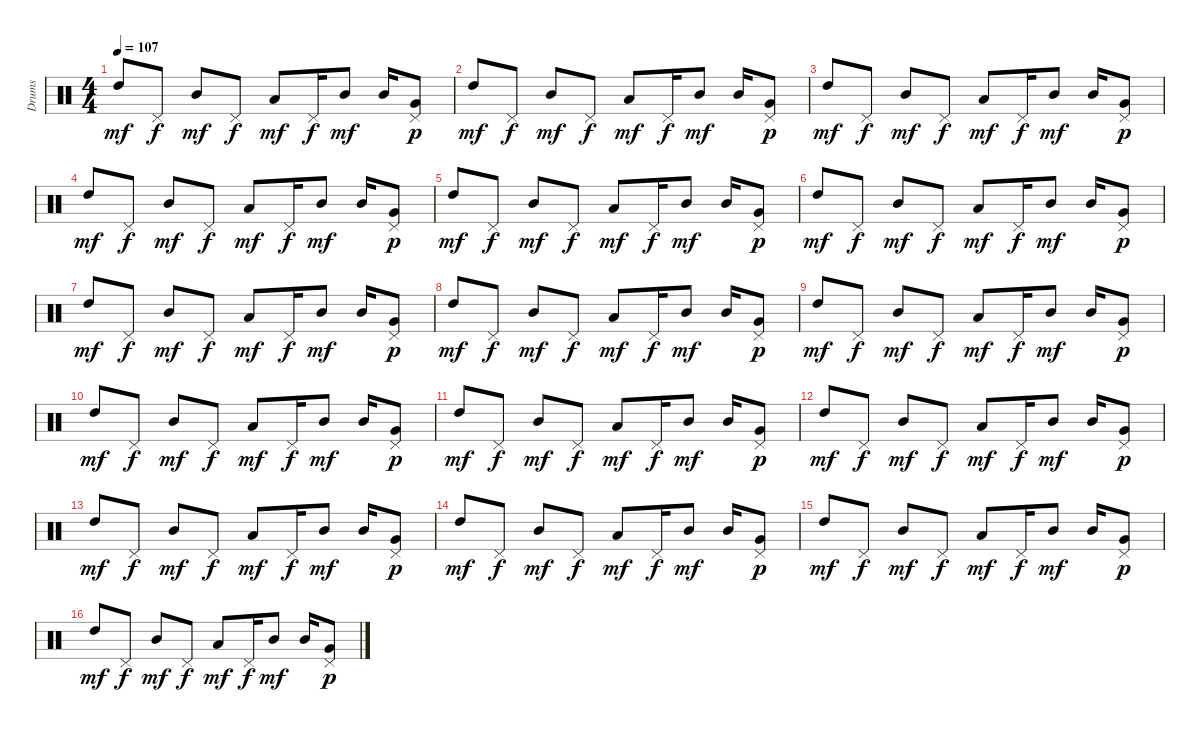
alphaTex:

\track ("Drums" "Drums") {instrument percussion}
\staff {score}
\articulation defaults
\ts (4 4)
\tempo 107
\clef neutral
\ks c "High Tom (hit)".8{dy mf} "Pedal Hi-Hat (hit)".8{dy f} "Mid Tom (hit)".8{dy mf} "Pedal Hi-Hat (hit)".8{dy f} "Low Tom (hit)".8{dy mf} "Pedal Hi-Hat (hit)".16{dy f} "Mid Tom (hit)".8{dy mf} "Mid Tom (hit)".16
("Pedal Hi-Hat (hit)" "Very Low Tom (hit)").8{dy p} |
"High Tom (hit)".8{dy mf} "Pedal Hi-Hat (hit)".8{dy f} "Mid Tom (hit)".8{dy mf} "Pedal Hi-Hat (hit)".8{dy f} "Low Tom (hit)".8{dy mf} "Pedal Hi-Hat (hit)".16{dy f} "Mid Tom (hit)".8{dy mf} "Mid Tom (hit)".16 ("Pedal Hi-Hat (hit)" "Very Low Tom (hit)").8{dy p} |
"High Tom (hit)".8{dy mf} "Pedal Hi-Hat (hit)".8{dy f} "Mid Tom (hit)".8{dy mf} "Pedal Hi-Hat (hit)".8{dy f} "Low Tom (hit)".8{dy mf} "Pedal Hi-Hat (hit)".16{dy f} "Mid Tom (hit)".8{dy mf} "Mid Tom (hit)".16 ("Pedal Hi-Hat (hit)" "Very Low Tom (hit)").8{dy p} |
"High Tom (hit)".8{dy mf} "Pedal Hi-Hat (hit)".8{dy f} "Mid Tom (hit)".8{dy mf} "Pedal Hi-Hat (hit)".8{dy f} "Low Tom (hit)".8{dy mf} "Pedal Hi-Hat (hit)".16{dy f} "Mid Tom (hit)".8{dy mf} "Mid Tom (hit)".16 ("Pedal Hi-Hat (hit)" "Very Low Tom (hit)").8{dy p} |
"High Tom (hit)".8{dy mf} "Pedal Hi-Hat (hit)".8{dy f} "Mid Tom (hit)".8{dy mf} "Pedal Hi-Hat (hit)".8{dy f} "Low Tom (hit)".8{dy mf} "Pedal Hi-Hat (hit)".16{dy f} "Mid Tom (hit)".8{dy mf} "Mid Tom (hit)".16 ("Pedal Hi-Hat (hit)" "Very Low Tom (hit)").8{dy p} |
"High Tom (hit)".8{dy mf} "Pedal Hi-Hat (hit)".8{dy f} "Mid Tom (hit)".8{dy mf} "Pedal Hi-Hat (hit)".8{dy f} "Low Tom (hit)".8{dy mf} "Pedal Hi-Hat (hit)".16{dy f} "Mid Tom (hit)".8{dy mf} "Mid Tom (hit)".16 ("Pedal Hi-Hat (hit)" "Very Low Tom (hit)").8{dy p} |
"High Tom (hit)".8{dy mf} "Pedal Hi-Hat (hit)".8{dy f} "Mid Tom (hit)".8{dy mf} "Pedal Hi-Hat (hit)".8{dy f} "Low Tom (hit)".8{dy mf} "Pedal Hi-Hat (hit)".16{dy f} "Mid Tom (hit)".8{dy mf} "Mid Tom (hit)".16 ("Pedal Hi-Hat (hit)" "Very Low Tom (hit)").8{dy p} |
"High Tom (hit)".8{dy mf} "Pedal Hi-Hat (hit)".8{dy f} "Mid Tom (hit)".8{dy mf} "Pedal Hi-Hat (hit)".8{dy f} "Low Tom (hit)".8{dy mf} "Pedal Hi-Hat (hit)".16{dy f} "Mid Tom (hit)".8{dy mf} "Mid Tom (hit)".16 ("Pedal Hi-Hat (hit)" "Very Low Tom (hit)").8{dy p} |
"High Tom (hit)".8{dy mf} "Pedal Hi-Hat (hit)".8{dy f} "Mid Tom (hit)".8{dy mf} "Pedal Hi-Hat (hit)".8{dy f} "Low Tom (hit)".8{dy mf} "Pedal Hi-Hat (hit)".16{dy f} "Mid Tom (hit)".8{dy mf} "Mid Tom (hit)".16 ("Pedal Hi-Hat (hit)" "Very Low Tom (hit)").8{dy p} |
"High Tom (hit)".8{dy mf} "Pedal Hi-Hat (hit)".8{dy f} "Mid Tom (hit)".8{dy mf} "Pedal Hi-Hat (hit)".8{dy f} "Low Tom (hit)".8{dy mf} "Pedal Hi-Hat (hit)".16{dy f} "Mid Tom (hit)".8{dy mf} "Mid Tom (hit)".16 ("Pedal Hi-Hat (hit)" "Very Low Tom (hit)").8{dy p} |
"High Tom (hit)".8{dy mf} "Pedal Hi-Hat (hit)".8{dy f} "Mid Tom (hit)".8{dy mf} "Pedal Hi-Hat (hit)".8{dy f} "Low Tom (hit)".8{dy mf} "Pedal Hi-Hat (hit)".16{dy f} "Mid Tom (hit)".8{dy mf} "Mid Tom (hit)".16 ("Pedal Hi-Hat (hit)" "Very Low Tom (hit)").8{dy p} |
"High Tom (hit)".8{dy mf} "Pedal Hi-Hat (hit)".8{dy f} "Mid Tom (hit)".8{dy mf} "Pedal Hi-Hat (hit)".8{dy f} "Low Tom (hit)".8{dy mf} "Pedal Hi-Hat (hit)".16{dy f} "Mid Tom (hit)".8{dy mf} "Mid Tom (hit)".16 ("Pedal Hi-Hat (hit)" "Very Low Tom (hit)").8{dy p} |
"High Tom (hit)".8{dy mf} "Pedal Hi-Hat (hit)".8{dy f} "Mid Tom (hit)".8{dy mf} "Pedal Hi-Hat (hit)".8{dy f} "Low Tom (hit)".8{dy mf} "Pedal Hi-Hat (hit)".16{dy f} "Mid Tom (hit)".8{dy mf} "Mid Tom (hit)".16 ("Pedal Hi-Hat (hit)" "Very Low Tom (hit)").8{dy p} |
"High Tom (hit)".8{dy mf} "Pedal Hi-Hat (hit)".8{dy f} "Mid Tom (hit)".8{dy mf} "Pedal Hi-Hat (hit)".8{dy f} "Low Tom (hit)".8{dy mf} "Pedal Hi-Hat (hit)".16{dy f} "Mid Tom (hit)".8{dy mf} "Mid Tom (hit)".16 ("Pedal Hi-Hat (hit)" "Very Low Tom (hit)").8{dy p} |
"High Tom (hit)".8{dy mf} "Pedal Hi-Hat (hit)".8{dy f} "Mid Tom (hit)".8{dy mf} "Pedal Hi-Hat (hit)".8{dy f} "Low Tom (hit)".8{dy mf} "Pedal Hi-Hat (hit)".16{dy f} "Mid Tom (hit)".8{dy mf} "Mid Tom (hit)".16 ("Pedal Hi-Hat (hit)" "Very Low Tom (hit)").8{dy p} |
"High Tom (hit)".8{dy mf} "Pedal Hi-Hat (hit)".8{dy f} "Mid Tom (hit)".8{dy mf} "Pedal Hi-Hat (hit)".8{dy f} "Low Tom (hit)".8{dy mf} "Pedal Hi-Hat (hit)".16{dy f} "Mid Tom (hit)".8{dy mf} "Mid Tom (hit)".16 ("Pedal Hi-Hat (hit)" "Very Low Tom (hit)").8{dy p}
